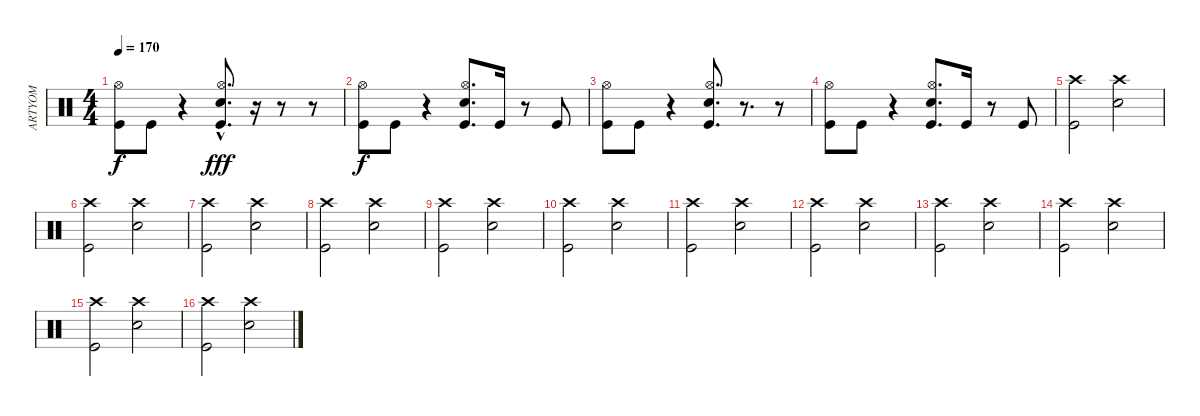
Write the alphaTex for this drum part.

\track ("ARTYOM" "ARTYOM") {instrument percussion}
\staff {score}
\articulation defaults
\ts (4 4)
\tempo 170
\clef neutral
\ks c
("Kick (hit)" "Hi-Hat (open)").8{dy f} "Kick (hit)".8 r.4 ("Hi-Hat (open)" "Kick (hit)"{hac} "Snare (hit) 2").8{d dy fff} r.16 r.8 r.8 |
("Kick (hit)" "Hi-Hat (open)").8{dy f} "Kick (hit)".8 r.4 ("Hi-Hat (open)" "Kick (hit)" "Snare (hit) 2").8{d} "Kick (hit)".16 r.8 "Kick (hit)".8 |
("Kick (hit)" "Hi-Hat (open)").8 "Kick (hit)".8 r.4 ("Hi-Hat (open)" "Kick (hit)" "Snare (hit) 2").8{d} r.8{d} r.8 |
("Kick (hit)" "Hi-Hat (open)").8 "Kick (hit)".8 r.4 ("Hi-Hat (open)" "Kick (hit)" "Snare (hit) 2").8{d} "Kick (hit)".16 r.8 "Kick (hit)".8 |
("Crash high (hit)" "Kick (hit)").2 ("Crash high (hit)" "Snare (hit) 2").2 |
("Crash high (hit)" "Kick (hit)").2 ("Crash high (hit)" "Snare (hit) 2").2 |
("Crash high (hit)" "Kick (hit)").2 ("Crash high (hit)" "Snare (hit) 2").2 |
("Crash high (hit)" "Kick (hit)").2 ("Crash high (hit)" "Snare (hit) 2").2 |
("Crash high (hit)" "Kick (hit)").2 ("Crash high (hit)" "Snare (hit) 2").2 |
("Crash high (hit)" "Kick (hit)").2 ("Crash high (hit)" "Snare (hit) 2").2 |
("Crash high (hit)" "Kick (hit)").2 ("Crash high (hit)" "Snare (hit) 2").2 |
("Crash high (hit)" "Kick (hit)").2 ("Crash high (hit)" "Snare (hit) 2").2 |
("Crash high (hit)" "Kick (hit)").2 ("Crash high (hit)" "Snare (hit) 2").2 |
("Crash high (hit)" "Kick (hit)").2 ("Crash high (hit)" "Snare (hit) 2").2 |
("Crash high (hit)" "Kick (hit)").2 ("Crash high (hit)" "Snare (hit) 2").2 |
("Crash high (hit)" "Kick (hit)").2 ("Crash high (hit)" "Snare (hit) 2").2
